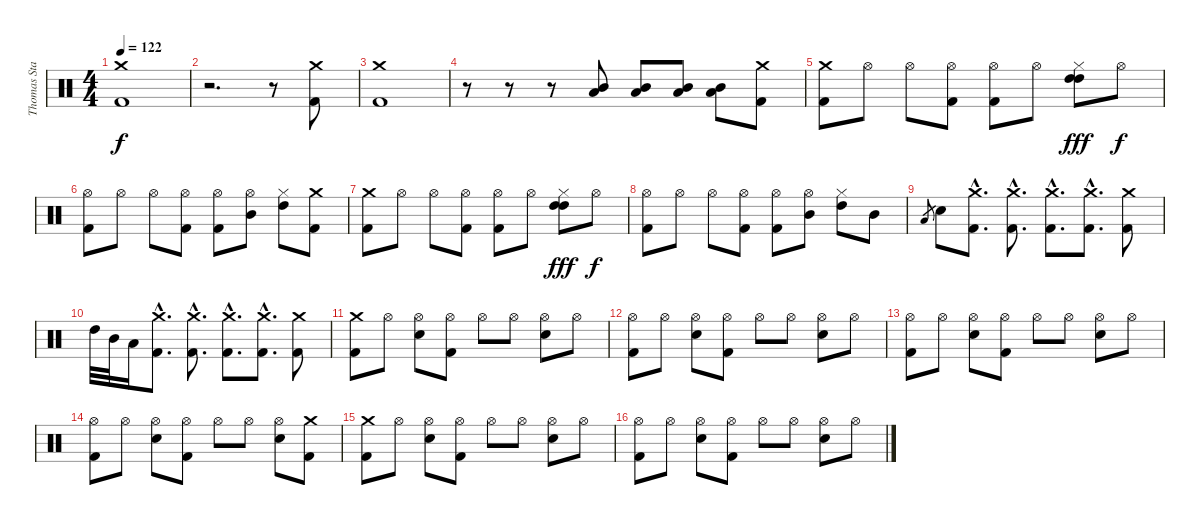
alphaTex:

\track ("Thomas Stauch" "Thomas Sta") {instrument percussion}
\staff {score}
\articulation defaults
\ts (4 4)
\tempo 122
\clef neutral
\ks c
("Crash medium (hit)" "Kick (hit) 2").1{dy f} |
r.2{d} r.8 ("Crash medium (hit)" "Kick (hit) 2").8 |
("Crash medium (hit)" "Kick (hit) 2").1 |
r.8 r.8 r.8 ("Mid Tom (hit)" "Low Tom (hit)").8 ("Mid Tom (hit)" "Low Tom (hit)").8 ("Mid Tom (hit)" "Low Tom (hit)").8 ("Mid Tom (hit)" "Low Tom (hit)").8 ("Crash medium (hit)" "Kick (hit) 2").8 |
("Crash medium (hit)" "Kick (hit) 2").8 "Hi-Hat (open)".8 "Hi-Hat (open)".8 ("Hi-Hat (open)" "Kick (hit) 2").8 ("Hi-Hat (open)" "Kick (hit) 2").8 "Hi-Hat (open)".8 ("Hi-Hat (closed)" "High Tom (hit)" "High Tom (hit)").8{dy fff} "Hi-Hat (open)".8{dy f} |
("Hi-Hat (open)" "Kick (hit) 2").8 "Hi-Hat (open)".8 "Hi-Hat (open)".8 ("Hi-Hat (open)" "Kick (hit) 2").8 ("Hi-Hat (open)" "Kick (hit) 2").8 ("Hi-Hat (open)" "Mid Tom (hit)").8 ("Hi-Hat (closed)" "High Tom (hit)").8 ("Crash medium (hit)" "Kick (hit) 2").8 |
("Crash medium (hit)" "Kick (hit) 2").8 "Hi-Hat (open)".8 "Hi-Hat (open)".8 ("Hi-Hat (open)" "Kick (hit) 2").8 ("Hi-Hat (open)" "Kick (hit) 2").8 "Hi-Hat (open)".8 ("Hi-Hat (closed)" "High Tom (hit)" "High Tom (hit)").8{dy fff} "Hi-Hat (open)".8{dy f} |
("Hi-Hat (open)" "Kick (hit) 2").8 "Hi-Hat (open)".8 "Hi-Hat (open)".8 ("Hi-Hat (open)" "Kick (hit) 2").8 ("Hi-Hat (open)" "Kick (hit) 2").8 ("Hi-Hat (open)" "Mid Tom (hit)").8 ("Hi-Hat (closed)" "High Tom (hit)").8 "Mid Tom (hit)".8 |
"Low Tom (hit)".8{gr} "Electric Snare (hit)".8 ("Crash medium (hit)"{hac} "Kick (hit) 2"{hac}).8{d} ("Crash medium (hit)"{hac} "Kick (hit) 2"{hac}).8{d} ("Crash medium (hit)"{hac} "Kick (hit) 2"{hac}).8{d} ("Crash medium (hit)"{hac} "Kick (hit) 2"{hac}).8{d} ("Crash medium (hit)" "Kick (hit) 2").8 |
"High Tom (hit)".32 "Mid Tom (hit)".32 "Low Tom (hit)".16 ("Crash medium (hit)"{hac} "Kick (hit) 2"{hac}).8{d} ("Crash medium (hit)"{hac} "Kick (hit) 2"{hac}).8{d} ("Crash medium (hit)"{hac} "Kick (hit) 2"{hac}).8{d} ("Crash medium (hit)"{hac} "Kick (hit) 2"{hac}).8{d} ("Crash medium (hit)" "Kick (hit) 2").8 |
("Crash medium (hit)" "Kick (hit) 2").8 "Hi-Hat (open)".8 ("Hi-Hat (open)" "Electric Snare (hit)").8 ("Hi-Hat (open)" "Kick (hit) 2").8 "Hi-Hat (open)".8 "Hi-Hat (open)".8 ("Hi-Hat (open)" "Electric Snare (hit)").8 "Hi-Hat (open)".8 |
("Hi-Hat (open)" "Kick (hit) 2").8 "Hi-Hat (open)".8 ("Hi-Hat (open)" "Electric Snare (hit)").8 ("Hi-Hat (open)" "Kick (hit) 2").8 "Hi-Hat (open)".8 "Hi-Hat (open)".8 ("Hi-Hat (open)" "Electric Snare (hit)").8 "Hi-Hat (open)".8 |
("Hi-Hat (open)" "Kick (hit) 2").8 "Hi-Hat (open)".8 ("Hi-Hat (open)" "Electric Snare (hit)").8 ("Hi-Hat (open)" "Kick (hit) 2").8 "Hi-Hat (open)".8 "Hi-Hat (open)".8 ("Hi-Hat (open)" "Electric Snare (hit)").8 "Hi-Hat (open)".8 |
("Hi-Hat (open)" "Kick (hit) 2").8 "Hi-Hat (open)".8 ("Hi-Hat (open)" "Electric Snare (hit)").8 ("Hi-Hat (open)" "Kick (hit) 2").8 "Hi-Hat (open)".8 "Hi-Hat (open)".8 ("Hi-Hat (open)" "Electric Snare (hit)").8 ("Crash medium (hit)" "Kick (hit) 2").8 |
("Crash medium (hit)" "Kick (hit) 2").8 "Hi-Hat (open)".8 ("Hi-Hat (open)" "Electric Snare (hit)").8 ("Hi-Hat (open)" "Kick (hit) 2").8 "Hi-Hat (open)".8 "Hi-Hat (open)".8 ("Hi-Hat (open)" "Electric Snare (hit)").8 "Hi-Hat (open)".8 |
("Hi-Hat (open)" "Kick (hit) 2").8 "Hi-Hat (open)".8 ("Hi-Hat (open)" "Electric Snare (hit)").8 ("Hi-Hat (open)" "Kick (hit) 2").8 "Hi-Hat (open)".8 "Hi-Hat (open)".8 ("Hi-Hat (open)" "Electric Snare (hit)").8 "Hi-Hat (open)".8
